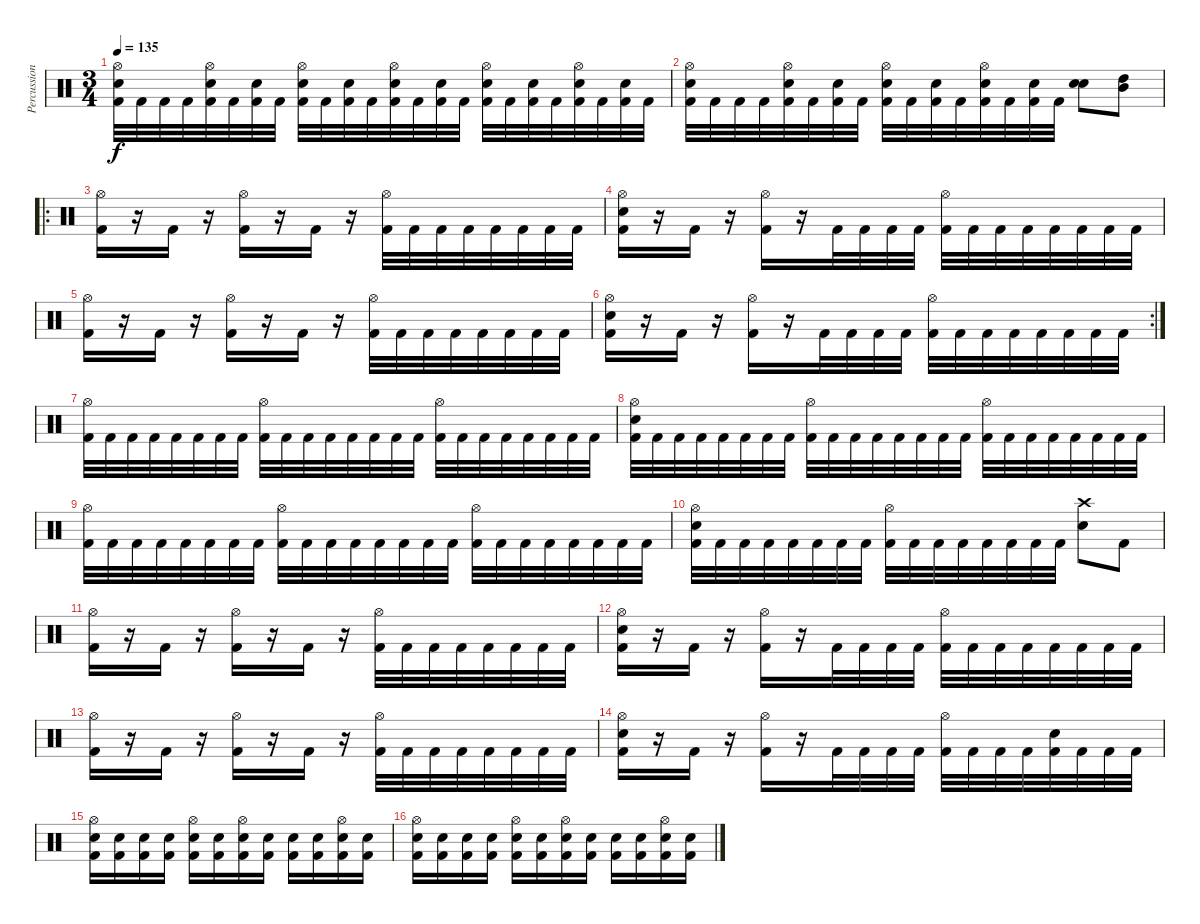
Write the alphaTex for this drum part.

\track ("Percussion" "Percussion") {instrument percussion}
\staff {score}
\articulation defaults
\ts (3 4)
\tempo 135
\clef neutral
\ks c
("Hi-Hat (open)" "Electric Snare (hit)" "Kick (hit) 2").32{dy f} "Kick (hit) 2".32 "Kick (hit) 2".32 "Kick (hit) 2".32 ("Hi-Hat (open)" "Electric Snare (hit)" "Kick (hit) 2").32 "Kick (hit) 2".32 ("Electric Snare (hit)" "Kick (hit) 2").32 "Kick (hit) 2".32 ("Hi-Hat (open)" "Electric Snare (hit)" "Kick (hit) 2").32 "Kick (hit) 2".32 ("Electric Snare (hit)" "Kick (hit) 2").32 "Kick (hit) 2".32 ("Hi-Hat (open)" "Electric Snare (hit)" "Kick (hit) 2").32 "Kick (hit) 2".32 ("Electric Snare (hit)" "Kick (hit) 2").32 "Kick (hit) 2".32 ("Hi-Hat (open)" "Electric Snare (hit)" "Kick (hit) 2").32 "Kick (hit) 2".32 ("Electric Snare (hit)" "Kick (hit) 2").32 "Kick (hit) 2".32 ("Hi-Hat (open)" "Electric Snare (hit)" "Kick (hit) 2").32 "Kick (hit) 2".32 ("Electric Snare (hit)" "Kick (hit) 2").32 "Kick (hit) 2".32 |
("Hi-Hat (open)" "Electric Snare (hit)" "Kick (hit) 2").32 "Kick (hit) 2".32 "Kick (hit) 2".32 "Kick (hit) 2".32 ("Hi-Hat (open)" "Electric Snare (hit)" "Kick (hit) 2").32 "Kick (hit) 2".32 ("Electric Snare (hit)" "Kick (hit) 2").32 "Kick (hit) 2".32 ("Hi-Hat (open)" "Electric Snare (hit)" "Kick (hit) 2").32 "Kick (hit) 2".32 ("Electric Snare (hit)" "Kick (hit) 2").32 "Kick (hit) 2".32 ("Hi-Hat (open)" "Electric Snare (hit)" "Kick (hit) 2").32 "Kick (hit) 2".32 ("Electric Snare (hit)" "Kick (hit) 2").32 "Kick (hit) 2".32 ("Electric Snare (hit)" "Electric Snare (hit)").8 ("Mid Tom (hit)" "High Tom (hit)").8 |
\ro
("Hi-Hat (open)" "Kick (hit) 2").16 r.16 "Kick (hit) 2".16 r.16 ("Hi-Hat (open)" "Kick (hit) 2").16 r.16 "Kick (hit) 2".16 r.16 ("Hi-Hat (open)" "Kick (hit) 2").32 "Kick (hit) 2".32 "Kick (hit) 2".32 "Kick (hit) 2".32 "Kick (hit) 2".32 "Kick (hit) 2".32 "Kick (hit) 2".32 "Kick (hit) 2".32 |
("Hi-Hat (open)" "Electric Snare (hit)" "Kick (hit) 2").16 r.16 "Kick (hit) 2".16 r.16 ("Hi-Hat (open)" "Kick (hit) 2").16 r.16 "Kick (hit) 2".32 "Kick (hit) 2".32 "Kick (hit) 2".32 "Kick (hit) 2".32 ("Hi-Hat (open)" "Kick (hit) 2").32 "Kick (hit) 2".32 "Kick (hit) 2".32 "Kick (hit) 2".32 "Kick (hit) 2".32 "Kick (hit) 2".32 "Kick (hit) 2".32 "Kick (hit) 2".32 |
("Hi-Hat (open)" "Kick (hit) 2").16 r.16 "Kick (hit) 2".16 r.16 ("Hi-Hat (open)" "Kick (hit) 2").16 r.16 "Kick (hit) 2".16 r.16 ("Hi-Hat (open)" "Kick (hit) 2").32 "Kick (hit) 2".32 "Kick (hit) 2".32 "Kick (hit) 2".32 "Kick (hit) 2".32 "Kick (hit) 2".32 "Kick (hit) 2".32 "Kick (hit) 2".32 |
\rc 2
("Hi-Hat (open)" "Electric Snare (hit)" "Kick (hit) 2").16 r.16 "Kick (hit) 2".16 r.16 ("Hi-Hat (open)" "Kick (hit) 2").16 r.16 "Kick (hit) 2".32 "Kick (hit) 2".32 "Kick (hit) 2".32 "Kick (hit) 2".32 ("Hi-Hat (open)" "Kick (hit) 2").32 "Kick (hit) 2".32 "Kick (hit) 2".32 "Kick (hit) 2".32 "Kick (hit) 2".32 "Kick (hit) 2".32 "Kick (hit) 2".32 "Kick (hit) 2".32 |
("Hi-Hat (open)" "Kick (hit) 2").32 "Kick (hit) 2".32 "Kick (hit) 2".32 "Kick (hit) 2".32 "Kick (hit) 2".32 "Kick (hit) 2".32 "Kick (hit) 2".32 "Kick (hit) 2".32 ("Hi-Hat (open)" "Kick (hit) 2").32 "Kick (hit) 2".32 "Kick (hit) 2".32 "Kick (hit) 2".32 "Kick (hit) 2".32 "Kick (hit) 2".32 "Kick (hit) 2".32 "Kick (hit) 2".32 ("Hi-Hat (open)" "Kick (hit) 2").32 "Kick (hit) 2".32 "Kick (hit) 2".32 "Kick (hit) 2".32 "Kick (hit) 2".32 "Kick (hit) 2".32 "Kick (hit) 2".32 "Kick (hit) 2".32 |
("Hi-Hat (open)" "Electric Snare (hit)" "Kick (hit) 2").32 "Kick (hit) 2".32 "Kick (hit) 2".32 "Kick (hit) 2".32 "Kick (hit) 2".32 "Kick (hit) 2".32 "Kick (hit) 2".32 "Kick (hit) 2".32 ("Hi-Hat (open)" "Kick (hit) 2").32 "Kick (hit) 2".32 "Kick (hit) 2".32 "Kick (hit) 2".32 "Kick (hit) 2".32 "Kick (hit) 2".32 "Kick (hit) 2".32 "Kick (hit) 2".32 ("Hi-Hat (open)" "Kick (hit) 2").32 "Kick (hit) 2".32 "Kick (hit) 2".32 "Kick (hit) 2".32 "Kick (hit) 2".32 "Kick (hit) 2".32 "Kick (hit) 2".32 "Kick (hit) 2".32 |
("Hi-Hat (open)" "Kick (hit) 2").32 "Kick (hit) 2".32 "Kick (hit) 2".32 "Kick (hit) 2".32 "Kick (hit) 2".32 "Kick (hit) 2".32 "Kick (hit) 2".32 "Kick (hit) 2".32 ("Hi-Hat (open)" "Kick (hit) 2").32 "Kick (hit) 2".32 "Kick (hit) 2".32 "Kick (hit) 2".32 "Kick (hit) 2".32 "Kick (hit) 2".32 "Kick (hit) 2".32 "Kick (hit) 2".32 ("Hi-Hat (open)" "Kick (hit) 2").32 "Kick (hit) 2".32 "Kick (hit) 2".32 "Kick (hit) 2".32 "Kick (hit) 2".32 "Kick (hit) 2".32 "Kick (hit) 2".32 "Kick (hit) 2".32 |
("Hi-Hat (open)" "Electric Snare (hit)" "Kick (hit) 2").32 "Kick (hit) 2".32 "Kick (hit) 2".32 "Kick (hit) 2".32 "Kick (hit) 2".32 "Kick (hit) 2".32 "Kick (hit) 2".32 "Kick (hit) 2".32 ("Hi-Hat (open)" "Kick (hit) 2").32 "Kick (hit) 2".32 "Kick (hit) 2".32 "Kick (hit) 2".32 "Kick (hit) 2".32 "Kick (hit) 2".32 "Kick (hit) 2".32 "Kick (hit) 2".32 ("Crash high (hit)" "Electric Snare (hit)").8 "Kick (hit) 2".8 |
("Hi-Hat (open)" "Kick (hit) 2").16 r.16 "Kick (hit) 2".16 r.16 ("Hi-Hat (open)" "Kick (hit) 2").16 r.16 "Kick (hit) 2".16 r.16 ("Hi-Hat (open)" "Kick (hit) 2").32 "Kick (hit) 2".32 "Kick (hit) 2".32 "Kick (hit) 2".32 "Kick (hit) 2".32 "Kick (hit) 2".32 "Kick (hit) 2".32 "Kick (hit) 2".32 |
("Hi-Hat (open)" "Electric Snare (hit)" "Kick (hit) 2").16 r.16 "Kick (hit) 2".16 r.16 ("Hi-Hat (open)" "Kick (hit) 2").16 r.16 "Kick (hit) 2".32 "Kick (hit) 2".32 "Kick (hit) 2".32 "Kick (hit) 2".32 ("Hi-Hat (open)" "Kick (hit) 2").32 "Kick (hit) 2".32 "Kick (hit) 2".32 "Kick (hit) 2".32 "Kick (hit) 2".32 "Kick (hit) 2".32 "Kick (hit) 2".32 "Kick (hit) 2".32 |
("Hi-Hat (open)" "Kick (hit) 2").16 r.16 "Kick (hit) 2".16 r.16 ("Hi-Hat (open)" "Kick (hit) 2").16 r.16 "Kick (hit) 2".16 r.16 ("Hi-Hat (open)" "Kick (hit) 2").32 "Kick (hit) 2".32 "Kick (hit) 2".32 "Kick (hit) 2".32 "Kick (hit) 2".32 "Kick (hit) 2".32 "Kick (hit) 2".32 "Kick (hit) 2".32 |
("Hi-Hat (open)" "Electric Snare (hit)" "Kick (hit) 2").16 r.16 "Kick (hit) 2".16 r.16 ("Hi-Hat (open)" "Kick (hit) 2").16 r.16 "Kick (hit) 2".32 "Kick (hit) 2".32 "Kick (hit) 2".32 "Kick (hit) 2".32 ("Hi-Hat (open)" "Kick (hit) 2").32 "Kick (hit) 2".32 "Kick (hit) 2".32 "Kick (hit) 2".32 ("Electric Snare (hit)" "Kick (hit) 2").32 "Kick (hit) 2".32 "Kick (hit) 2".32 "Kick (hit) 2".32 |
("Hi-Hat (open)" "Electric Snare (hit)" "Kick (hit) 2").16 ("Electric Snare (hit)" "Kick (hit) 2").16 ("Electric Snare (hit)" "Kick (hit) 2").16 ("Electric Snare (hit)" "Kick (hit) 2").16 ("Hi-Hat (open)" "Electric Snare (hit)" "Kick (hit) 2").16 ("Electric Snare (hit)" "Kick (hit) 2").16 ("Hi-Hat (open)" "Electric Snare (hit)" "Kick (hit) 2").16 ("Electric Snare (hit)" "Kick (hit) 2").16 ("Electric Snare (hit)" "Kick (hit) 2").16 ("Electric Snare (hit)" "Kick (hit) 2").16 ("Hi-Hat (open)" "Electric Snare (hit)" "Kick (hit) 2").16 ("Electric Snare (hit)" "Kick (hit) 2").16 |
("Hi-Hat (open)" "Electric Snare (hit)" "Kick (hit) 2").16 ("Electric Snare (hit)" "Kick (hit) 2").16 ("Electric Snare (hit)" "Kick (hit) 2").16 ("Electric Snare (hit)" "Kick (hit) 2").16 ("Hi-Hat (open)" "Electric Snare (hit)" "Kick (hit) 2").16 ("Electric Snare (hit)" "Kick (hit) 2").16 ("Hi-Hat (open)" "Electric Snare (hit)" "Kick (hit) 2").16 ("Electric Snare (hit)" "Kick (hit) 2").16 ("Electric Snare (hit)" "Kick (hit) 2").16 ("Electric Snare (hit)" "Kick (hit) 2").16 ("Hi-Hat (open)" "Electric Snare (hit)" "Kick (hit) 2").16 ("Electric Snare (hit)" "Kick (hit) 2").16
